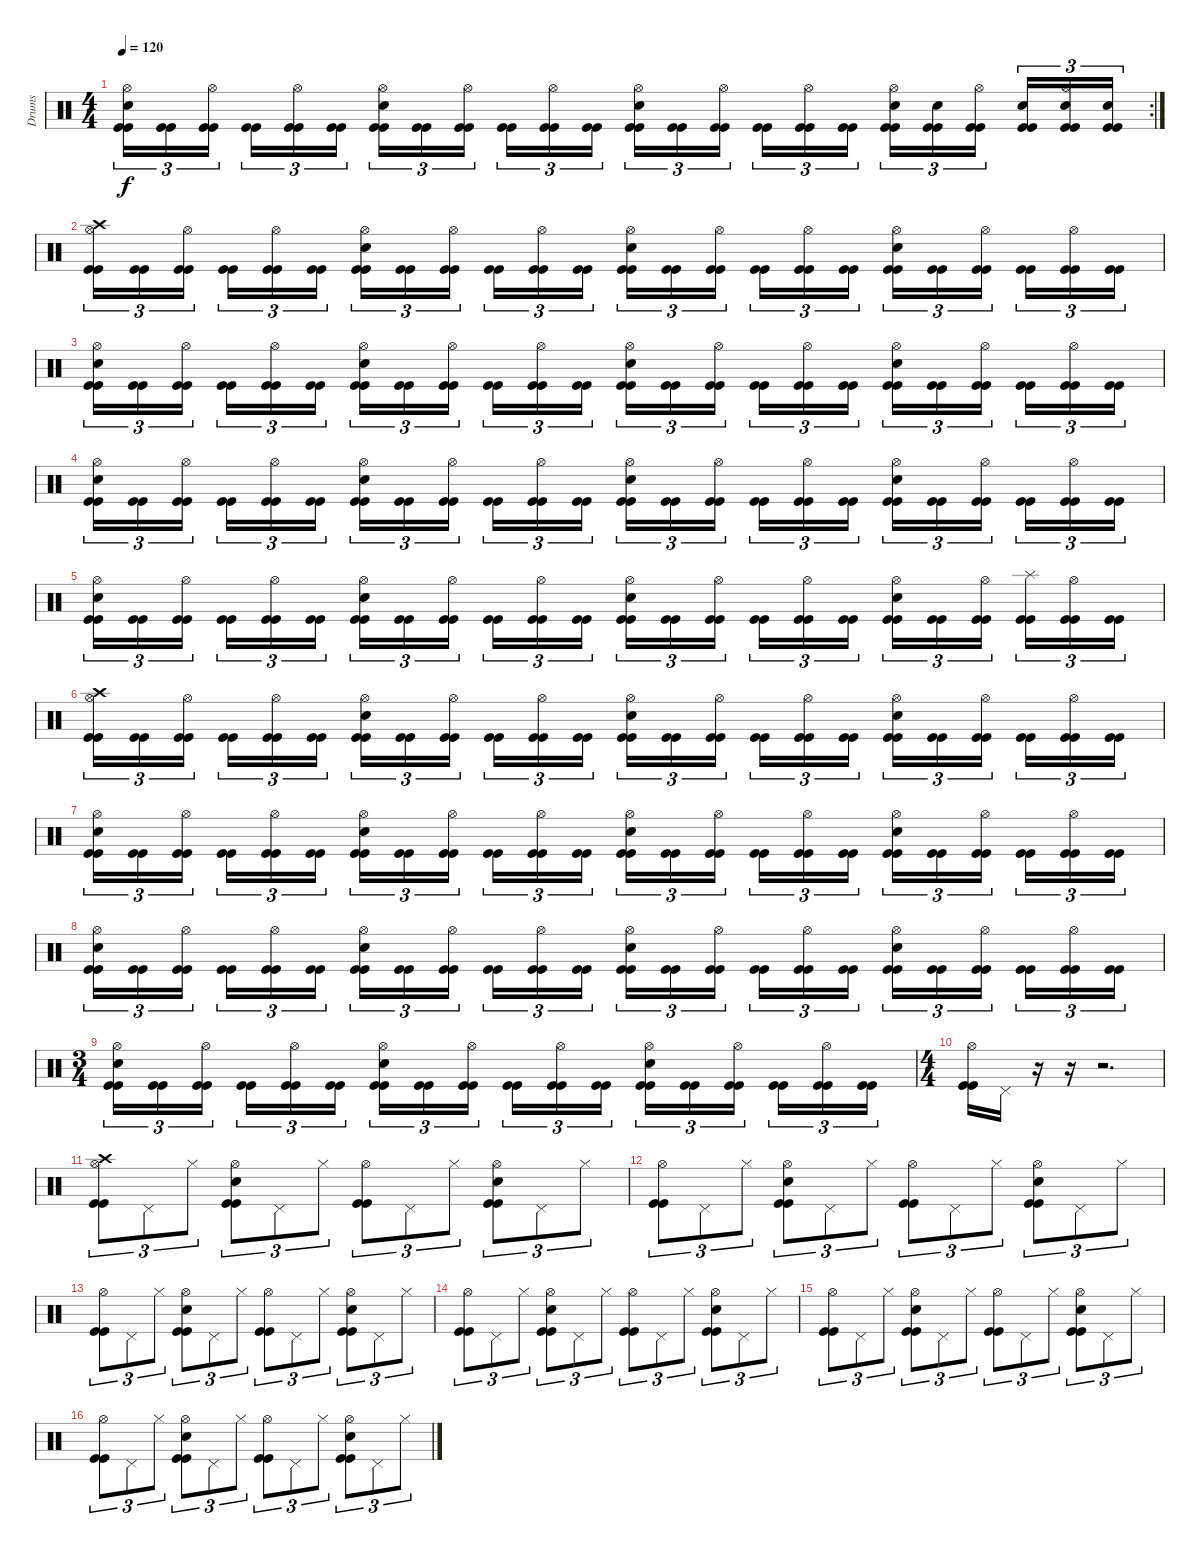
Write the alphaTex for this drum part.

\track ("Drums" "Drums") {instrument percussion}
\staff {score}
\articulation defaults
\rc 2
\ts (4 4)
\tempo 120
\clef neutral
\ks c
("Snare (hit) 2" "Hi-Hat (open)" "Kick (hit)" "Kick (hit)").16{tu (3 2) dy f} ("Kick (hit)" "Kick (hit)").16{tu (3 2)} ("Hi-Hat (open)" "Kick (hit)" "Kick (hit)").16{tu (3 2)} ("Kick (hit)" "Kick (hit)").16{tu (3 2)} ("Hi-Hat (open)" "Kick (hit)" "Kick (hit)").16{tu (3 2)} ("Kick (hit)" "Kick (hit)").16{tu (3 2)} ("Snare (hit) 2" "Hi-Hat (open)" "Kick (hit)" "Kick (hit)").16{tu (3 2)} ("Kick (hit)" "Kick (hit)").16{tu (3 2)} ("Hi-Hat (open)" "Kick (hit)" "Kick (hit)").16{tu (3 2)} ("Kick (hit)" "Kick (hit)").16{tu (3 2)} ("Hi-Hat (open)" "Kick (hit)" "Kick (hit)").16{tu (3 2)} ("Kick (hit)" "Kick (hit)").16{tu (3 2)} ("Snare (hit) 2" "Hi-Hat (open)" "Kick (hit)" "Kick (hit)").16{tu (3 2)} ("Kick (hit)" "Kick (hit)").16{tu (3 2)} ("Hi-Hat (open)" "Kick (hit)" "Kick (hit)").16{tu (3 2)} ("Kick (hit)" "Kick (hit)").16{tu (3 2)} ("Hi-Hat (open)" "Kick (hit)" "Kick (hit)").16{tu (3 2)} ("Kick (hit)" "Kick (hit)").16{tu (3 2)} ("Snare (hit) 2" "Hi-Hat (open)" "Kick (hit)" "Kick (hit)").16{tu (3 2)} ("Snare (hit) 2" "Kick (hit)" "Kick (hit)").16{tu (3 2)} ("Hi-Hat (open)" "Kick (hit)" "Kick (hit)").16{tu (3 2)} ("Snare (hit) 2" "Kick (hit)" "Kick (hit)").16{tu (3 2)} ("Snare (hit) 2" "Hi-Hat (open)" "Kick (hit)" "Kick (hit)").16{tu (3 2)} ("Snare (hit) 2" "Kick (hit)" "Kick (hit)").16{tu (3 2)} |
("Crash high (hit)" "Hi-Hat (open)" "Kick (hit)" "Kick (hit)").16{tu (3 2)} ("Kick (hit)" "Kick (hit)").16{tu (3 2)} ("Hi-Hat (open)" "Kick (hit)" "Kick (hit)").16{tu (3 2)} ("Kick (hit)" "Kick (hit)").16{tu (3 2)} ("Hi-Hat (open)" "Kick (hit)" "Kick (hit)").16{tu (3 2)} ("Kick (hit)" "Kick (hit)").16{tu (3 2)} ("Snare (hit) 2" "Hi-Hat (open)" "Kick (hit)" "Kick (hit)").16{tu (3 2)} ("Kick (hit)" "Kick (hit)").16{tu (3 2)} ("Hi-Hat (open)" "Kick (hit)" "Kick (hit)").16{tu (3 2)} ("Kick (hit)" "Kick (hit)").16{tu (3 2)} ("Hi-Hat (open)" "Kick (hit)" "Kick (hit)").16{tu (3 2)} ("Kick (hit)" "Kick (hit)").16{tu (3 2)} ("Snare (hit) 2" "Hi-Hat (open)" "Kick (hit)" "Kick (hit)").16{tu (3 2)} ("Kick (hit)" "Kick (hit)").16{tu (3 2)} ("Hi-Hat (open)" "Kick (hit)" "Kick (hit)").16{tu (3 2)} ("Kick (hit)" "Kick (hit)").16{tu (3 2)} ("Hi-Hat (open)" "Kick (hit)" "Kick (hit)").16{tu (3 2)} ("Kick (hit)" "Kick (hit)").16{tu (3 2)} ("Snare (hit) 2" "Hi-Hat (open)" "Kick (hit)" "Kick (hit)").16{tu (3 2)} ("Kick (hit)" "Kick (hit)").16{tu (3 2)} ("Hi-Hat (open)" "Kick (hit)" "Kick (hit)").16{tu (3 2)} ("Kick (hit)" "Kick (hit)").16{tu (3 2)} ("Hi-Hat (open)" "Kick (hit)" "Kick (hit)").16{tu (3 2)} ("Kick (hit)" "Kick (hit)").16{tu (3 2)} |
("Snare (hit) 2" "Hi-Hat (open)" "Kick (hit)" "Kick (hit)").16{tu (3 2)} ("Kick (hit)" "Kick (hit)").16{tu (3 2)} ("Hi-Hat (open)" "Kick (hit)" "Kick (hit)").16{tu (3 2)} ("Kick (hit)" "Kick (hit)").16{tu (3 2)} ("Hi-Hat (open)" "Kick (hit)" "Kick (hit)").16{tu (3 2)} ("Kick (hit)" "Kick (hit)").16{tu (3 2)} ("Snare (hit) 2" "Hi-Hat (open)" "Kick (hit)" "Kick (hit)").16{tu (3 2)} ("Kick (hit)" "Kick (hit)").16{tu (3 2)} ("Hi-Hat (open)" "Kick (hit)" "Kick (hit)").16{tu (3 2)} ("Kick (hit)" "Kick (hit)").16{tu (3 2)} ("Hi-Hat (open)" "Kick (hit)" "Kick (hit)").16{tu (3 2)} ("Kick (hit)" "Kick (hit)").16{tu (3 2)} ("Snare (hit) 2" "Hi-Hat (open)" "Kick (hit)" "Kick (hit)").16{tu (3 2)} ("Kick (hit)" "Kick (hit)").16{tu (3 2)} ("Hi-Hat (open)" "Kick (hit)" "Kick (hit)").16{tu (3 2)} ("Kick (hit)" "Kick (hit)").16{tu (3 2)} ("Hi-Hat (open)" "Kick (hit)" "Kick (hit)").16{tu (3 2)} ("Kick (hit)" "Kick (hit)").16{tu (3 2)} ("Snare (hit) 2" "Hi-Hat (open)" "Kick (hit)" "Kick (hit)").16{tu (3 2)} ("Kick (hit)" "Kick (hit)").16{tu (3 2)} ("Hi-Hat (open)" "Kick (hit)" "Kick (hit)").16{tu (3 2)} ("Kick (hit)" "Kick (hit)").16{tu (3 2)} ("Hi-Hat (open)" "Kick (hit)" "Kick (hit)").16{tu (3 2)} ("Kick (hit)" "Kick (hit)").16{tu (3 2)} |
("Snare (hit) 2" "Hi-Hat (open)" "Kick (hit)" "Kick (hit)").16{tu (3 2)} ("Kick (hit)" "Kick (hit)").16{tu (3 2)} ("Hi-Hat (open)" "Kick (hit)" "Kick (hit)").16{tu (3 2)} ("Kick (hit)" "Kick (hit)").16{tu (3 2)} ("Hi-Hat (open)" "Kick (hit)" "Kick (hit)").16{tu (3 2)} ("Kick (hit)" "Kick (hit)").16{tu (3 2)} ("Snare (hit) 2" "Hi-Hat (open)" "Kick (hit)" "Kick (hit)").16{tu (3 2)} ("Kick (hit)" "Kick (hit)").16{tu (3 2)} ("Hi-Hat (open)" "Kick (hit)" "Kick (hit)").16{tu (3 2)} ("Kick (hit)" "Kick (hit)").16{tu (3 2)} ("Hi-Hat (open)" "Kick (hit)" "Kick (hit)").16{tu (3 2)} ("Kick (hit)" "Kick (hit)").16{tu (3 2)} ("Snare (hit) 2" "Hi-Hat (open)" "Kick (hit)" "Kick (hit)").16{tu (3 2)} ("Kick (hit)" "Kick (hit)").16{tu (3 2)} ("Hi-Hat (open)" "Kick (hit)" "Kick (hit)").16{tu (3 2)} ("Kick (hit)" "Kick (hit)").16{tu (3 2)} ("Hi-Hat (open)" "Kick (hit)" "Kick (hit)").16{tu (3 2)} ("Kick (hit)" "Kick (hit)").16{tu (3 2)} ("Snare (hit) 2" "Hi-Hat (open)" "Kick (hit)" "Kick (hit)").16{tu (3 2)} ("Kick (hit)" "Kick (hit)").16{tu (3 2)} ("Hi-Hat (open)" "Kick (hit)" "Kick (hit)").16{tu (3 2)} ("Kick (hit)" "Kick (hit)").16{tu (3 2)} ("Hi-Hat (open)" "Kick (hit)" "Kick (hit)").16{tu (3 2)} ("Kick (hit)" "Kick (hit)").16{tu (3 2)} |
("Snare (hit) 2" "Hi-Hat (open)" "Kick (hit)" "Kick (hit)").16{tu (3 2)} ("Kick (hit)" "Kick (hit)").16{tu (3 2)} ("Hi-Hat (open)" "Kick (hit)" "Kick (hit)").16{tu (3 2)} ("Kick (hit)" "Kick (hit)").16{tu (3 2)} ("Hi-Hat (open)" "Kick (hit)" "Kick (hit)").16{tu (3 2)} ("Kick (hit)" "Kick (hit)").16{tu (3 2)} ("Snare (hit) 2" "Hi-Hat (open)" "Kick (hit)" "Kick (hit)").16{tu (3 2)} ("Kick (hit)" "Kick (hit)").16{tu (3 2)} ("Hi-Hat (open)" "Kick (hit)" "Kick (hit)").16{tu (3 2)} ("Kick (hit)" "Kick (hit)").16{tu (3 2)} ("Hi-Hat (open)" "Kick (hit)" "Kick (hit)").16{tu (3 2)} ("Kick (hit)" "Kick (hit)").16{tu (3 2)} ("Snare (hit) 2" "Hi-Hat (open)" "Kick (hit)" "Kick (hit)").16{tu (3 2)} ("Kick (hit)" "Kick (hit)").16{tu (3 2)} ("Hi-Hat (open)" "Kick (hit)" "Kick (hit)").16{tu (3 2)} ("Kick (hit)" "Kick (hit)").16{tu (3 2)} ("Hi-Hat (open)" "Kick (hit)" "Kick (hit)").16{tu (3 2)} ("Kick (hit)" "Kick (hit)").16{tu (3 2)} ("Snare (hit) 2" "Hi-Hat (open)" "Kick (hit)" "Kick (hit)").16{tu (3 2)} ("Kick (hit)" "Kick (hit)").16{tu (3 2)} ("Hi-Hat (open)" "Kick (hit)" "Kick (hit)").16{tu (3 2)} ("Splash (hit)" "Kick (hit)" "Kick (hit)").16{tu (3 2)} ("Hi-Hat (open)" "Kick (hit)" "Kick (hit)").16{tu (3 2)} ("Kick (hit)" "Kick (hit)").16{tu (3 2)} |
("Crash high (hit)" "Hi-Hat (open)" "Kick (hit)" "Kick (hit)").16{tu (3 2)} ("Kick (hit)" "Kick (hit)").16{tu (3 2)} ("Hi-Hat (open)" "Kick (hit)" "Kick (hit)").16{tu (3 2)} ("Kick (hit)" "Kick (hit)").16{tu (3 2)} ("Hi-Hat (open)" "Kick (hit)" "Kick (hit)").16{tu (3 2)} ("Kick (hit)" "Kick (hit)").16{tu (3 2)} ("Snare (hit) 2" "Hi-Hat (open)" "Kick (hit)" "Kick (hit)").16{tu (3 2)} ("Kick (hit)" "Kick (hit)").16{tu (3 2)} ("Hi-Hat (open)" "Kick (hit)" "Kick (hit)").16{tu (3 2)} ("Kick (hit)" "Kick (hit)").16{tu (3 2)} ("Hi-Hat (open)" "Kick (hit)" "Kick (hit)").16{tu (3 2)} ("Kick (hit)" "Kick (hit)").16{tu (3 2)} ("Snare (hit) 2" "Hi-Hat (open)" "Kick (hit)" "Kick (hit)").16{tu (3 2)} ("Kick (hit)" "Kick (hit)").16{tu (3 2)} ("Hi-Hat (open)" "Kick (hit)" "Kick (hit)").16{tu (3 2)} ("Kick (hit)" "Kick (hit)").16{tu (3 2)} ("Hi-Hat (open)" "Kick (hit)" "Kick (hit)").16{tu (3 2)} ("Kick (hit)" "Kick (hit)").16{tu (3 2)} ("Snare (hit) 2" "Hi-Hat (open)" "Kick (hit)" "Kick (hit)").16{tu (3 2)} ("Kick (hit)" "Kick (hit)").16{tu (3 2)} ("Hi-Hat (open)" "Kick (hit)" "Kick (hit)").16{tu (3 2)} ("Kick (hit)" "Kick (hit)").16{tu (3 2)} ("Hi-Hat (open)" "Kick (hit)" "Kick (hit)").16{tu (3 2)} ("Kick (hit)" "Kick (hit)").16{tu (3 2)} |
("Snare (hit) 2" "Hi-Hat (open)" "Kick (hit)" "Kick (hit)").16{tu (3 2)} ("Kick (hit)" "Kick (hit)").16{tu (3 2)} ("Hi-Hat (open)" "Kick (hit)" "Kick (hit)").16{tu (3 2)} ("Kick (hit)" "Kick (hit)").16{tu (3 2)} ("Hi-Hat (open)" "Kick (hit)" "Kick (hit)").16{tu (3 2)} ("Kick (hit)" "Kick (hit)").16{tu (3 2)} ("Snare (hit) 2" "Hi-Hat (open)" "Kick (hit)" "Kick (hit)").16{tu (3 2)} ("Kick (hit)" "Kick (hit)").16{tu (3 2)} ("Hi-Hat (open)" "Kick (hit)" "Kick (hit)").16{tu (3 2)} ("Kick (hit)" "Kick (hit)").16{tu (3 2)} ("Hi-Hat (open)" "Kick (hit)" "Kick (hit)").16{tu (3 2)} ("Kick (hit)" "Kick (hit)").16{tu (3 2)} ("Snare (hit) 2" "Hi-Hat (open)" "Kick (hit)" "Kick (hit)").16{tu (3 2)} ("Kick (hit)" "Kick (hit)").16{tu (3 2)} ("Hi-Hat (open)" "Kick (hit)" "Kick (hit)").16{tu (3 2)} ("Kick (hit)" "Kick (hit)").16{tu (3 2)} ("Hi-Hat (open)" "Kick (hit)" "Kick (hit)").16{tu (3 2)} ("Kick (hit)" "Kick (hit)").16{tu (3 2)} ("Snare (hit) 2" "Hi-Hat (open)" "Kick (hit)" "Kick (hit)").16{tu (3 2)} ("Kick (hit)" "Kick (hit)").16{tu (3 2)} ("Hi-Hat (open)" "Kick (hit)" "Kick (hit)").16{tu (3 2)} ("Kick (hit)" "Kick (hit)").16{tu (3 2)} ("Hi-Hat (open)" "Kick (hit)" "Kick (hit)").16{tu (3 2)} ("Kick (hit)" "Kick (hit)").16{tu (3 2)} |
("Snare (hit) 2" "Hi-Hat (open)" "Kick (hit)" "Kick (hit)").16{tu (3 2)} ("Kick (hit)" "Kick (hit)").16{tu (3 2)} ("Hi-Hat (open)" "Kick (hit)" "Kick (hit)").16{tu (3 2)} ("Kick (hit)" "Kick (hit)").16{tu (3 2)} ("Hi-Hat (open)" "Kick (hit)" "Kick (hit)").16{tu (3 2)} ("Kick (hit)" "Kick (hit)").16{tu (3 2)} ("Snare (hit) 2" "Hi-Hat (open)" "Kick (hit)" "Kick (hit)").16{tu (3 2)} ("Kick (hit)" "Kick (hit)").16{tu (3 2)} ("Hi-Hat (open)" "Kick (hit)" "Kick (hit)").16{tu (3 2)} ("Kick (hit)" "Kick (hit)").16{tu (3 2)} ("Hi-Hat (open)" "Kick (hit)" "Kick (hit)").16{tu (3 2)} ("Kick (hit)" "Kick (hit)").16{tu (3 2)} ("Snare (hit) 2" "Hi-Hat (open)" "Kick (hit)" "Kick (hit)").16{tu (3 2)} ("Kick (hit)" "Kick (hit)").16{tu (3 2)} ("Hi-Hat (open)" "Kick (hit)" "Kick (hit)").16{tu (3 2)} ("Kick (hit)" "Kick (hit)").16{tu (3 2)} ("Hi-Hat (open)" "Kick (hit)" "Kick (hit)").16{tu (3 2)} ("Kick (hit)" "Kick (hit)").16{tu (3 2)} ("Snare (hit) 2" "Hi-Hat (open)" "Kick (hit)" "Kick (hit)").16{tu (3 2)} ("Kick (hit)" "Kick (hit)").16{tu (3 2)} ("Hi-Hat (open)" "Kick (hit)" "Kick (hit)").16{tu (3 2)} ("Kick (hit)" "Kick (hit)").16{tu (3 2)} ("Hi-Hat (open)" "Kick (hit)" "Kick (hit)").16{tu (3 2)} ("Kick (hit)" "Kick (hit)").16{tu (3 2)} |
\ts (3 4)
("Snare (hit) 2" "Hi-Hat (open)" "Kick (hit)" "Kick (hit)").16{tu (3 2)} ("Kick (hit)" "Kick (hit)").16{tu (3 2)} ("Hi-Hat (open)" "Kick (hit)" "Kick (hit)").16{tu (3 2)} ("Kick (hit)" "Kick (hit)").16{tu (3 2)} ("Hi-Hat (open)" "Kick (hit)" "Kick (hit)").16{tu (3 2)} ("Kick (hit)" "Kick (hit)").16{tu (3 2)} ("Snare (hit) 2" "Hi-Hat (open)" "Kick (hit)" "Kick (hit)").16{tu (3 2)} ("Kick (hit)" "Kick (hit)").16{tu (3 2)} ("Hi-Hat (open)" "Kick (hit)" "Kick (hit)").16{tu (3 2)} ("Kick (hit)" "Kick (hit)").16{tu (3 2)} ("Hi-Hat (open)" "Kick (hit)" "Kick (hit)").16{tu (3 2)} ("Kick (hit)" "Kick (hit)").16{tu (3 2)} ("Snare (hit) 2" "Hi-Hat (open)" "Kick (hit)" "Kick (hit)").16{tu (3 2)} ("Kick (hit)" "Kick (hit)").16{tu (3 2)} ("Hi-Hat (open)" "Kick (hit)" "Kick (hit)").16{tu (3 2)} ("Kick (hit)" "Kick (hit)").16{tu (3 2)} ("Hi-Hat (open)" "Kick (hit)" "Kick (hit)").16{tu (3 2)} ("Kick (hit)" "Kick (hit)").16{tu (3 2)} |
\ts (4 4)
("Hi-Hat (open)" "Kick (hit)" "Kick (hit)").16 "Pedal Hi-Hat (hit)".16 r.16 r.16 r.2{d} |
("Crash high (hit)" "Hi-Hat (open)" "Kick (hit)" "Kick (hit)").8{tu (3 2)} "Pedal Hi-Hat (hit)".8{tu (3 2)} "Hi-Hat (closed)".8{tu (3 2)} ("Snare (hit) 2" "Hi-Hat (open)" "Kick (hit)" "Kick (hit)").8{tu (3 2)} "Pedal Hi-Hat (hit)".8{tu (3 2)} "Hi-Hat (closed)".8{tu (3 2)} ("Hi-Hat (open)" "Kick (hit)" "Kick (hit)").8{tu (3 2)} "Pedal Hi-Hat (hit)".8{tu (3 2)} "Hi-Hat (closed)".8{tu (3 2)} ("Snare (hit) 2" "Hi-Hat (open)" "Kick (hit)" "Kick (hit)").8{tu (3 2)} "Pedal Hi-Hat (hit)".8{tu (3 2)} "Hi-Hat (closed)".8{tu (3 2)} |
("Hi-Hat (open)" "Kick (hit)" "Kick (hit)").8{tu (3 2)} "Pedal Hi-Hat (hit)".8{tu (3 2)} "Hi-Hat (closed)".8{tu (3 2)} ("Snare (hit) 2" "Hi-Hat (open)" "Kick (hit)" "Kick (hit)").8{tu (3 2)} "Pedal Hi-Hat (hit)".8{tu (3 2)} "Hi-Hat (closed)".8{tu (3 2)} ("Hi-Hat (open)" "Kick (hit)" "Kick (hit)").8{tu (3 2)} "Pedal Hi-Hat (hit)".8{tu (3 2)} "Hi-Hat (closed)".8{tu (3 2)} ("Snare (hit) 2" "Hi-Hat (open)" "Kick (hit)" "Kick (hit)").8{tu (3 2)} "Pedal Hi-Hat (hit)".8{tu (3 2)} "Hi-Hat (closed)".8{tu (3 2)} |
("Hi-Hat (open)" "Kick (hit)" "Kick (hit)").8{tu (3 2)} "Pedal Hi-Hat (hit)".8{tu (3 2)} "Hi-Hat (closed)".8{tu (3 2)} ("Snare (hit) 2" "Hi-Hat (open)" "Kick (hit)" "Kick (hit)").8{tu (3 2)} "Pedal Hi-Hat (hit)".8{tu (3 2)} "Hi-Hat (closed)".8{tu (3 2)} ("Hi-Hat (open)" "Kick (hit)" "Kick (hit)").8{tu (3 2)} "Pedal Hi-Hat (hit)".8{tu (3 2)} "Hi-Hat (closed)".8{tu (3 2)} ("Snare (hit) 2" "Hi-Hat (open)" "Kick (hit)" "Kick (hit)").8{tu (3 2)} "Pedal Hi-Hat (hit)".8{tu (3 2)} "Hi-Hat (closed)".8{tu (3 2)} |
("Hi-Hat (open)" "Kick (hit)" "Kick (hit)").8{tu (3 2)} "Pedal Hi-Hat (hit)".8{tu (3 2)} "Hi-Hat (closed)".8{tu (3 2)} ("Snare (hit) 2" "Hi-Hat (open)" "Kick (hit)" "Kick (hit)").8{tu (3 2)} "Pedal Hi-Hat (hit)".8{tu (3 2)} "Hi-Hat (closed)".8{tu (3 2)} ("Hi-Hat (open)" "Kick (hit)" "Kick (hit)").8{tu (3 2)} "Pedal Hi-Hat (hit)".8{tu (3 2)} "Hi-Hat (closed)".8{tu (3 2)} ("Snare (hit) 2" "Hi-Hat (open)" "Kick (hit)" "Kick (hit)").8{tu (3 2)} "Pedal Hi-Hat (hit)".8{tu (3 2)} "Hi-Hat (closed)".8{tu (3 2)} |
("Hi-Hat (open)" "Kick (hit)" "Kick (hit)").8{tu (3 2)} "Pedal Hi-Hat (hit)".8{tu (3 2)} "Hi-Hat (closed)".8{tu (3 2)} ("Snare (hit) 2" "Hi-Hat (open)" "Kick (hit)" "Kick (hit)").8{tu (3 2)} "Pedal Hi-Hat (hit)".8{tu (3 2)} "Hi-Hat (closed)".8{tu (3 2)} ("Hi-Hat (open)" "Kick (hit)" "Kick (hit)").8{tu (3 2)} "Pedal Hi-Hat (hit)".8{tu (3 2)} "Hi-Hat (closed)".8{tu (3 2)} ("Snare (hit) 2" "Hi-Hat (open)" "Kick (hit)" "Kick (hit)").8{tu (3 2)} "Pedal Hi-Hat (hit)".8{tu (3 2)} "Hi-Hat (closed)".8{tu (3 2)} |
("Hi-Hat (open)" "Kick (hit)" "Kick (hit)").8{tu (3 2)} "Pedal Hi-Hat (hit)".8{tu (3 2)} "Hi-Hat (closed)".8{tu (3 2)} ("Snare (hit) 2" "Hi-Hat (open)" "Kick (hit)" "Kick (hit)").8{tu (3 2)} "Pedal Hi-Hat (hit)".8{tu (3 2)} "Hi-Hat (closed)".8{tu (3 2)} ("Hi-Hat (open)" "Kick (hit)" "Kick (hit)").8{tu (3 2)} "Pedal Hi-Hat (hit)".8{tu (3 2)} "Hi-Hat (closed)".8{tu (3 2)} ("Snare (hit) 2" "Hi-Hat (open)" "Kick (hit)" "Kick (hit)").8{tu (3 2)} "Pedal Hi-Hat (hit)".8{tu (3 2)} "Hi-Hat (closed)".8{tu (3 2)}
